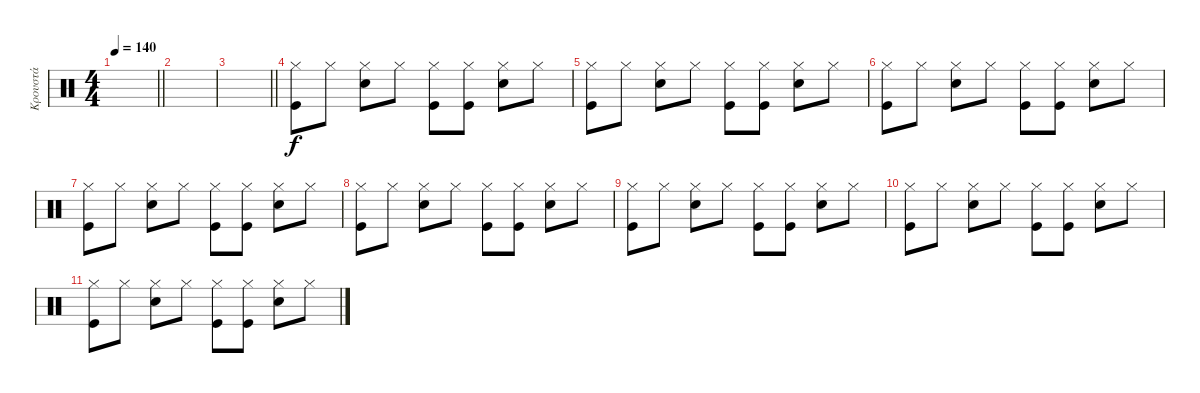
\track ("Κρουστά" "Κρουστά") {instrument percussion}
\staff {score}
\articulation defaults
\ts (4 4)
\tempo 140
\clef neutral
\barLineRight lightlight
\ks c
|
|
\barLineRight lightlight
|
("Hi-Hat (closed)" "Kick (hit)").8 "Hi-Hat (closed)".8 ("Hi-Hat (closed)" "Snare (hit) 2").8 "Hi-Hat (closed)".8 ("Hi-Hat (closed)" "Kick (hit)").8 ("Hi-Hat (closed)" "Kick (hit)").8 ("Hi-Hat (closed)" "Snare (hit) 2").8 "Hi-Hat (closed)".8 |
("Hi-Hat (closed)" "Kick (hit)").8 "Hi-Hat (closed)".8 ("Hi-Hat (closed)" "Snare (hit) 2").8 "Hi-Hat (closed)".8 ("Hi-Hat (closed)" "Kick (hit)").8 ("Hi-Hat (closed)" "Kick (hit)").8 ("Hi-Hat (closed)" "Snare (hit) 2").8 "Hi-Hat (closed)".8 |
("Hi-Hat (closed)" "Kick (hit)").8 "Hi-Hat (closed)".8 ("Hi-Hat (closed)" "Snare (hit) 2").8 "Hi-Hat (closed)".8 ("Hi-Hat (closed)" "Kick (hit)").8 ("Hi-Hat (closed)" "Kick (hit)").8 ("Hi-Hat (closed)" "Snare (hit) 2").8 "Hi-Hat (closed)".8 |
("Hi-Hat (closed)" "Kick (hit)").8 "Hi-Hat (closed)".8 ("Hi-Hat (closed)" "Snare (hit) 2").8 "Hi-Hat (closed)".8 ("Hi-Hat (closed)" "Kick (hit)").8 ("Hi-Hat (closed)" "Kick (hit)").8 ("Hi-Hat (closed)" "Snare (hit) 2").8 "Hi-Hat (closed)".8 |
("Hi-Hat (closed)" "Kick (hit)").8 "Hi-Hat (closed)".8 ("Hi-Hat (closed)" "Snare (hit) 2").8 "Hi-Hat (closed)".8 ("Hi-Hat (closed)" "Kick (hit)").8 ("Hi-Hat (closed)" "Kick (hit)").8 ("Hi-Hat (closed)" "Snare (hit) 2").8 "Hi-Hat (closed)".8 |
("Hi-Hat (closed)" "Kick (hit)").8 "Hi-Hat (closed)".8 ("Hi-Hat (closed)" "Snare (hit) 2").8 "Hi-Hat (closed)".8 ("Hi-Hat (closed)" "Kick (hit)").8 ("Hi-Hat (closed)" "Kick (hit)").8 ("Hi-Hat (closed)" "Snare (hit) 2").8 "Hi-Hat (closed)".8 |
("Hi-Hat (closed)" "Kick (hit)").8 "Hi-Hat (closed)".8 ("Hi-Hat (closed)" "Snare (hit) 2").8 "Hi-Hat (closed)".8 ("Hi-Hat (closed)" "Kick (hit)").8 ("Hi-Hat (closed)" "Kick (hit)").8 ("Hi-Hat (closed)" "Snare (hit) 2").8 "Hi-Hat (closed)".8 |
("Hi-Hat (closed)" "Kick (hit)").8 "Hi-Hat (closed)".8 ("Hi-Hat (closed)" "Snare (hit) 2").8 "Hi-Hat (closed)".8 ("Hi-Hat (closed)" "Kick (hit)").8 ("Hi-Hat (closed)" "Kick (hit)").8 ("Hi-Hat (closed)" "Snare (hit) 2").8 "Hi-Hat (closed)".8
